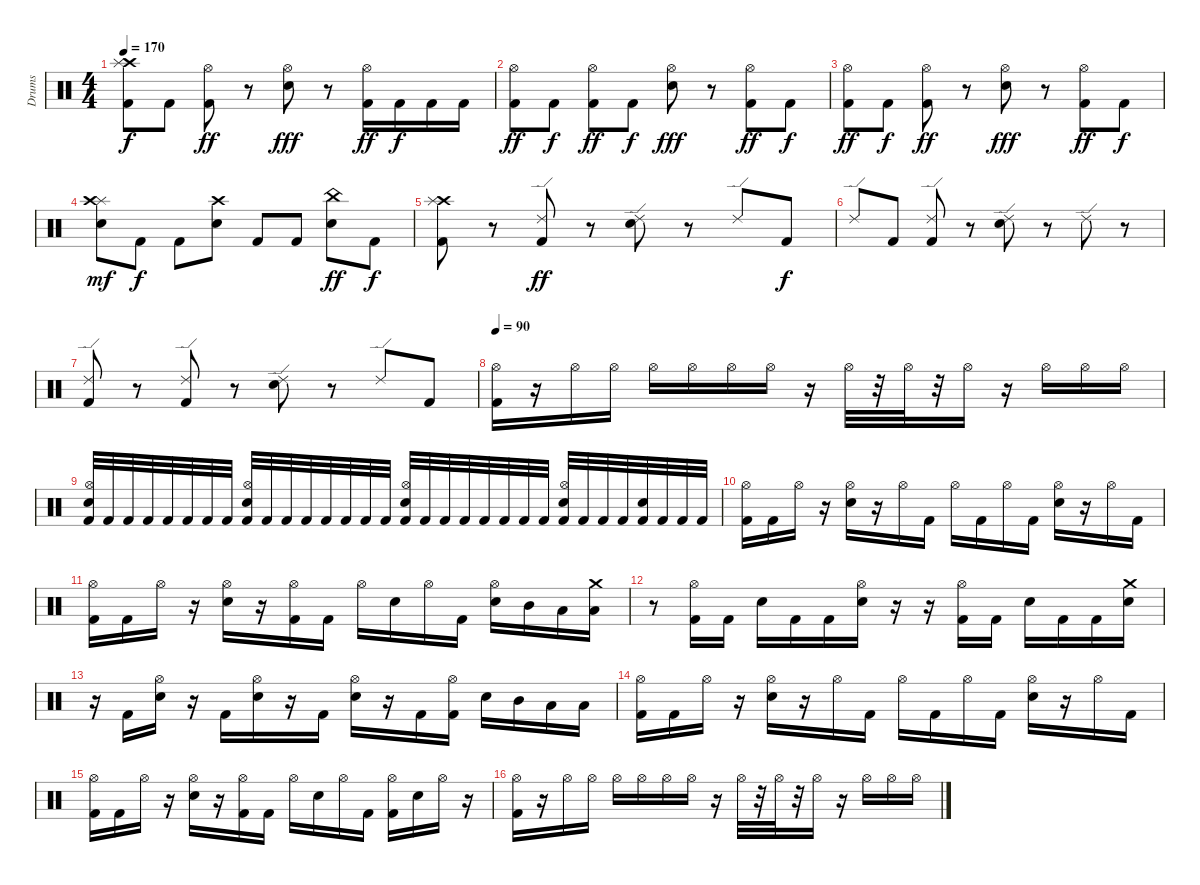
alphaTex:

\track ("Drums" "Drums") {instrument percussion}
\staff {score}
\articulation defaults
\ts (4 4)
\tempo 170
\clef neutral
\ks c
("Crash high (hit)" "Splash (hit)" "Kick (hit) 2").8{dy f} "Kick (hit) 2".8 ("Hi-Hat (open)" "Kick (hit) 2").8{dy ff} r.8 ("Hi-Hat (open)" "Electric Snare (hit)").8{dy fff} r.8 ("Hi-Hat (open)" "Kick (hit) 2").16{dy ff} "Kick (hit) 2".16{dy f} "Kick (hit) 2".16 "Kick (hit) 2".16 |
("Hi-Hat (open)" "Kick (hit) 2").8{dy ff} "Kick (hit) 2".8{dy f} ("Hi-Hat (open)" "Kick (hit) 2").8{dy ff} "Kick (hit) 2".8{dy f} ("Hi-Hat (open)" "Electric Snare (hit)").8{dy fff} r.8 ("Hi-Hat (open)" "Kick (hit) 2").8{dy ff} "Kick (hit) 2".8{dy f} |
("Hi-Hat (open)" "Kick (hit) 2").8{dy ff} "Kick (hit) 2".8{dy f} ("Hi-Hat (open)" "Kick (hit) 2").8{dy ff} r.8 ("Hi-Hat (open)" "Electric Snare (hit)").8{dy fff} r.8 ("Hi-Hat (open)" "Kick (hit) 2").8{dy ff} "Kick (hit) 2".8{dy f} |
("Splash (hit)" "Crash high (hit)" "Electric Snare (hit)").8{dy mf} "Kick (hit) 2".8{dy f} "Kick (hit) 2".8 ("Crash high (hit)" "Electric Snare (hit)").8 "Kick (hit) 2".8 "Kick (hit) 2".8 ("China (hit)" "Electric Snare (hit)").8{dy ff} "Kick (hit) 2".8{dy f} |
("Crash high (hit)" "Splash (hit)" "Kick (hit) 2").8 r.8 ("Ride (edge) 2" "Kick (hit) 2").8{dy ff} r.8 ("Ride (edge) 2" "Electric Snare (hit)").8 r.8 "Ride (edge) 2".8 "Kick (hit) 2".8{dy f} |
"Ride (edge) 2".8 "Kick (hit) 2".8 ("Ride (edge) 2" "Kick (hit) 2").8 r.8 ("Ride (edge) 2" "Electric Snare (hit)").8 r.8 "Ride (edge) 2".8 r.8 |
("Ride (edge) 2" "Kick (hit) 2").8 r.8 ("Ride (edge) 2" "Kick (hit) 2").8 r.8 ("Ride (edge) 2" "Electric Snare (hit)").8 r.8 "Ride (edge) 2".8 "Kick (hit) 2".8 |
\tempo 90
("Hi-Hat (open)" "Kick (hit) 2").16 r.16 "Hi-Hat (open)".16 "Hi-Hat (open)".16 "Hi-Hat (open)".16 "Hi-Hat (open)".16 "Hi-Hat (open)".16 "Hi-Hat (open)".16 r.16 "Hi-Hat (open)".32 r.32 "Hi-Hat (open)".32 r.32 "Hi-Hat (open)".16 r.16 "Hi-Hat (open)".16 "Hi-Hat (open)".16 "Hi-Hat (open)".16 |
("Hi-Hat (open)" "Snare (hit) 2" "Kick (hit) 2").32 "Kick (hit) 2".32 "Kick (hit) 2".32 "Kick (hit) 2".32 "Kick (hit) 2".32 "Kick (hit) 2".32 "Kick (hit) 2".32 "Kick (hit) 2".32 ("Hi-Hat (open)" "Snare (hit) 2" "Kick (hit) 2").32 "Kick (hit) 2".32 "Kick (hit) 2".32 "Kick (hit) 2".32 "Kick (hit) 2".32 "Kick (hit) 2".32 "Kick (hit) 2".32 "Kick (hit) 2".32 ("Hi-Hat (open)" "Snare (hit) 2" "Kick (hit) 2").32 "Kick (hit) 2".32 "Kick (hit) 2".32 "Kick (hit) 2".32 "Kick (hit) 2".32 "Kick (hit) 2".32 "Kick (hit) 2".32 "Kick (hit) 2".32 ("Hi-Hat (open)" "Snare (hit) 2" "Kick (hit) 2").32 "Kick (hit) 2".32 "Kick (hit) 2".32 "Kick (hit) 2".32 ("Snare (hit) 2" "Kick (hit) 2").32 "Kick (hit) 2".32 "Kick (hit) 2".32 "Kick (hit) 2".32 |
("Hi-Hat (open)" "Kick (hit) 2").16 "Kick (hit) 2".16 "Hi-Hat (open)".16 r.16 ("Hi-Hat (open)" "Snare (hit) 2").16 r.16 "Hi-Hat (open)".16 "Kick (hit) 2".16 "Hi-Hat (open)".16 "Kick (hit) 2".16 "Hi-Hat (open)".16 "Kick (hit) 2".16 ("Hi-Hat (open)" "Snare (hit) 2").16 r.16 "Hi-Hat (open)".16 "Kick (hit) 2".16 |
("Hi-Hat (open)" "Kick (hit) 2").16 "Kick (hit) 2".16 "Hi-Hat (open)".16 r.16 ("Hi-Hat (open)" "Snare (hit) 2").16 r.16 ("Hi-Hat (open)" "Kick (hit) 2").16 "Kick (hit) 2".16 "Hi-Hat (open)".16 "Snare (hit) 2".16 "Hi-Hat (open)".16 "Kick (hit) 2".16 ("Hi-Hat (open)" "Snare (hit) 2").16 "Mid Tom (hit)".16 "Low Tom (hit)".16 ("Crash medium (hit)" "Low Floor Tom (hit)").16 |
r.8 ("Hi-Hat (open)" "Kick (hit) 2").16 "Kick (hit) 2".16 "Snare (hit) 2".16 "Kick (hit) 2".16 "Kick (hit) 2".16 ("Hi-Hat (open)" "Snare (hit) 2").16 r.16 r.16 ("Hi-Hat (open)" "Kick (hit) 2").16 "Kick (hit) 2".16 "Snare (hit) 2".16 "Kick (hit) 2".16 "Kick (hit) 2".16 ("Crash medium (hit)" "Snare (hit) 2").16 |
r.16 "Kick (hit) 2".16 ("Hi-Hat (open)" "Snare (hit) 2").16 r.16 "Kick (hit) 2".16 ("Hi-Hat (open)" "Snare (hit) 2").16 r.16 "Kick (hit) 2".16 ("Hi-Hat (open)" "Snare (hit) 2").16 r.16 "Kick (hit) 2".16 ("Hi-Hat (open)" "Kick (hit) 2").16 "Snare (hit) 2".16 "Mid Tom (hit)".16 "Low Tom (hit)".16 "Low Floor Tom (hit)".16 |
("Hi-Hat (open)" "Kick (hit) 2").16 "Kick (hit) 2".16 "Hi-Hat (open)".16 r.16 ("Hi-Hat (open)" "Snare (hit) 2").16 r.16 "Hi-Hat (open)".16 "Kick (hit) 2".16 "Hi-Hat (open)".16 "Kick (hit) 2".16 "Hi-Hat (open)".16 "Kick (hit) 2".16 ("Hi-Hat (open)" "Snare (hit) 2").16 r.16 "Hi-Hat (open)".16 "Kick (hit) 2".16 |
("Hi-Hat (open)" "Kick (hit) 2").16 "Kick (hit) 2".16 "Hi-Hat (open)".16 r.16 ("Hi-Hat (open)" "Snare (hit) 2").16 r.16 ("Hi-Hat (open)" "Kick (hit) 2").16 "Kick (hit) 2".16 "Hi-Hat (open)".16 "Snare (hit) 2".16 "Hi-Hat (open)".16 "Kick (hit) 2".16 ("Hi-Hat (open)" "Kick (hit) 2").16 "Snare (hit) 2".16 "Hi-Hat (open)".16 r.16 |
("Hi-Hat (open)" "Kick (hit) 2").16 r.16 "Hi-Hat (open)".16 "Hi-Hat (open)".16 "Hi-Hat (open)".16 "Hi-Hat (open)".16 "Hi-Hat (open)".16 "Hi-Hat (open)".16 r.16 "Hi-Hat (open)".32 r.32 "Hi-Hat (open)".32 r.32 "Hi-Hat (open)".16 r.16 "Hi-Hat (open)".16 "Hi-Hat (open)".16 "Hi-Hat (open)".16
